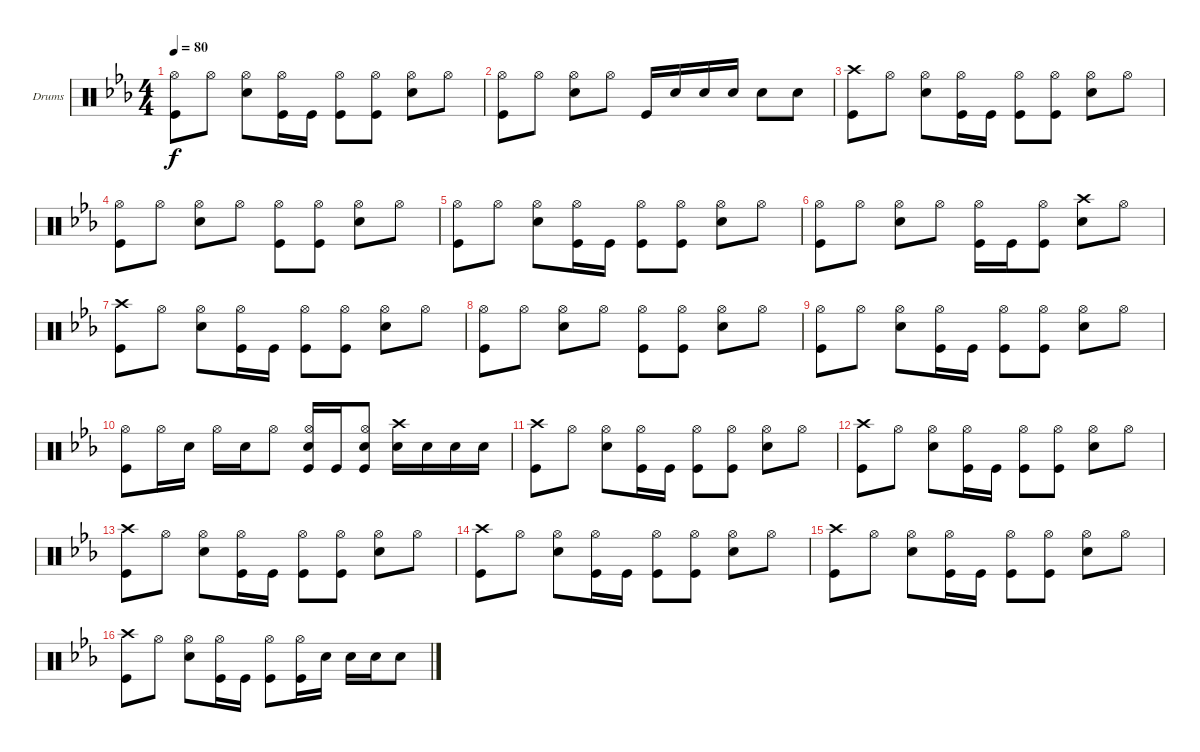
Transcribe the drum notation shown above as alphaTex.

\defaultSystemsLayout 4
\bracketExtendMode groupsimilarinstruments
\firstSystemTrackNameOrientation horizontal
\otherSystemsTrackNameOrientation horizontal
\track ("Drumkit" "Drums") {instrument percussion}
\staff {score}
\articulation defaults
\ts (4 4)
\tempo 80
\clef neutral
\ks cminor
("Kick (hit)" "Hi-Hat (open)").8{dy f} "Hi-Hat (open)".8 ("Hi-Hat (open)" "Snare (hit) 2").8 ("Hi-Hat (open)" "Kick (hit)").16 "Kick (hit)".16 ("Hi-Hat (open)" "Kick (hit)").8 ("Hi-Hat (open)" "Kick (hit)").8 ("Hi-Hat (open)" "Snare (hit) 2").8 "Hi-Hat (open)".8 |
("Kick (hit)" "Hi-Hat (open)").8 "Hi-Hat (open)".8 ("Hi-Hat (open)" "Snare (hit) 2").8 "Hi-Hat (open)".8 "Kick (hit)".16 "Snare (hit) 2".16 "Snare (hit) 2".16 "Snare (hit) 2".16 "Snare (hit) 2".8 "Snare (hit) 2".8 |
("Crash high (hit)" "Kick (hit)").8 "Hi-Hat (open)".8 ("Hi-Hat (open)" "Snare (hit) 2").8 ("Hi-Hat (open)" "Kick (hit)").16 "Kick (hit)".16 ("Hi-Hat (open)" "Kick (hit)").8 ("Hi-Hat (open)" "Kick (hit)").8 ("Hi-Hat (open)" "Snare (hit) 2").8 "Hi-Hat (open)".8 |
("Kick (hit)" "Hi-Hat (open)").8 "Hi-Hat (open)".8 ("Hi-Hat (open)" "Snare (hit) 2").8 "Hi-Hat (open)".8 ("Hi-Hat (open)" "Kick (hit)").8 ("Hi-Hat (open)" "Kick (hit)").8 ("Hi-Hat (open)" "Snare (hit) 2").8 "Hi-Hat (open)".8 |
("Kick (hit)" "Hi-Hat (open)").8 "Hi-Hat (open)".8 ("Hi-Hat (open)" "Snare (hit) 2").8 ("Hi-Hat (open)" "Kick (hit)").16 "Kick (hit)".16 ("Hi-Hat (open)" "Kick (hit)").8 ("Hi-Hat (open)" "Kick (hit)").8 ("Hi-Hat (open)" "Snare (hit) 2").8 "Hi-Hat (open)".8 |
("Kick (hit)" "Hi-Hat (open)").8 "Hi-Hat (open)".8 ("Hi-Hat (open)" "Snare (hit) 2").8 "Hi-Hat (open)".8 ("Kick (hit)" "Hi-Hat (open)").16 "Kick (hit)".16 ("Hi-Hat (open)" "Kick (hit)").8 ("Snare (hit) 2" "Crash high (hit)").8 "Hi-Hat (open)".8 |
("Crash high (hit)" "Kick (hit)").8 "Hi-Hat (open)".8 ("Hi-Hat (open)" "Snare (hit) 2").8 ("Hi-Hat (open)" "Kick (hit)").16 "Kick (hit)".16 ("Hi-Hat (open)" "Kick (hit)").8 ("Hi-Hat (open)" "Kick (hit)").8 ("Hi-Hat (open)" "Snare (hit) 2").8 "Hi-Hat (open)".8 |
("Kick (hit)" "Hi-Hat (open)").8 "Hi-Hat (open)".8 ("Hi-Hat (open)" "Snare (hit) 2").8 "Hi-Hat (open)".8 ("Hi-Hat (open)" "Kick (hit)").8 ("Hi-Hat (open)" "Kick (hit)").8 ("Hi-Hat (open)" "Snare (hit) 2").8 "Hi-Hat (open)".8 |
("Kick (hit)" "Hi-Hat (open)").8 "Hi-Hat (open)".8 ("Hi-Hat (open)" "Snare (hit) 2").8 ("Hi-Hat (open)" "Kick (hit)").16 "Kick (hit)".16 ("Hi-Hat (open)" "Kick (hit)").8 ("Hi-Hat (open)" "Kick (hit)").8 ("Hi-Hat (open)" "Snare (hit) 2").8 "Hi-Hat (open)".8 |
("Kick (hit)" "Hi-Hat (open)").8 "Hi-Hat (open)".16 "Snare (hit) 2".16 "Hi-Hat (open)".16 "Snare (hit) 2".16 "Hi-Hat (open)".8 ("Kick (hit)" "Hi-Hat (open)" "Snare (hit) 2").16 "Kick (hit)".16 ("Hi-Hat (open)" "Kick (hit)" "Snare (hit) 2").8 ("Snare (hit) 2" "Crash high (hit)").16 "Snare (hit) 2".16 "Snare (hit) 2".16 "Snare (hit) 2".16 |
("Crash high (hit)" "Kick (hit)").8 "Hi-Hat (open)".8 ("Hi-Hat (open)" "Snare (hit) 2").8 ("Hi-Hat (open)" "Kick (hit)").16 "Kick (hit)".16 ("Hi-Hat (open)" "Kick (hit)").8 ("Hi-Hat (open)" "Kick (hit)").8 ("Hi-Hat (open)" "Snare (hit) 2").8 "Hi-Hat (open)".8 |
("Crash high (hit)" "Kick (hit)").8 "Hi-Hat (open)".8 ("Hi-Hat (open)" "Snare (hit) 2").8 ("Hi-Hat (open)" "Kick (hit)").16 "Kick (hit)".16 ("Hi-Hat (open)" "Kick (hit)").8 ("Hi-Hat (open)" "Kick (hit)").8 ("Hi-Hat (open)" "Snare (hit) 2").8 "Hi-Hat (open)".8 |
("Crash high (hit)" "Kick (hit)").8 "Hi-Hat (open)".8 ("Hi-Hat (open)" "Snare (hit) 2").8 ("Hi-Hat (open)" "Kick (hit)").16 "Kick (hit)".16 ("Hi-Hat (open)" "Kick (hit)").8 ("Hi-Hat (open)" "Kick (hit)").8 ("Hi-Hat (open)" "Snare (hit) 2").8 "Hi-Hat (open)".8 |
("Crash high (hit)" "Kick (hit)").8 "Hi-Hat (open)".8 ("Hi-Hat (open)" "Snare (hit) 2").8 ("Hi-Hat (open)" "Kick (hit)").16 "Kick (hit)".16 ("Hi-Hat (open)" "Kick (hit)").8 ("Hi-Hat (open)" "Kick (hit)").8 ("Hi-Hat (open)" "Snare (hit) 2").8 "Hi-Hat (open)".8 |
("Crash high (hit)" "Kick (hit)").8 "Hi-Hat (open)".8 ("Hi-Hat (open)" "Snare (hit) 2").8 ("Hi-Hat (open)" "Kick (hit)").16 "Kick (hit)".16 ("Hi-Hat (open)" "Kick (hit)").8 ("Hi-Hat (open)" "Kick (hit)").8 ("Hi-Hat (open)" "Snare (hit) 2").8 "Hi-Hat (open)".8 |
("Crash high (hit)" "Kick (hit)").8 "Hi-Hat (open)".8 ("Hi-Hat (open)" "Snare (hit) 2").8 ("Hi-Hat (open)" "Kick (hit)").16 "Kick (hit)".16 ("Hi-Hat (open)" "Kick (hit)").8 ("Hi-Hat (open)" "Kick (hit)").16 "Snare (hit) 2".16 "Snare (hit) 2".16 "Snare (hit) 2".16 "Snare (hit) 2".8
